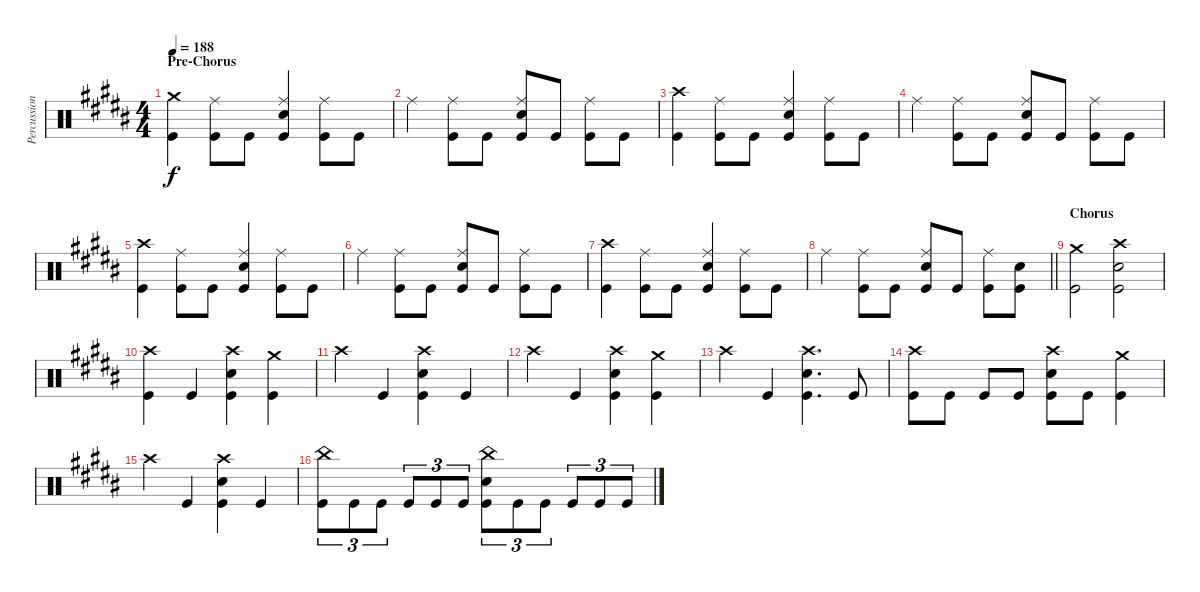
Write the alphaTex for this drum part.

\track ("Percussion" "Percussion") {instrument percussion}
\staff {score}
\articulation defaults
\ts (4 4)
\section ("" "Pre-Chorus")
\tempo 188
\clef neutral
\ks b
("Crash medium (hit)" "Kick (hit)").4{dy f} ("Ride (middle)" "Kick (hit)").8 "Kick (hit)".8 ("Ride (middle)" "Electric Snare (hit)" "Kick (hit)").4 ("Ride (middle)" "Kick (hit)").8 "Kick (hit)".8 |
"Ride (middle)".4 ("Ride (middle)" "Kick (hit)").8 "Kick (hit)".8 ("Ride (middle)" "Electric Snare (hit)" "Kick (hit)").8 "Kick (hit)".8 ("Ride (middle)" "Kick (hit)").8 "Kick (hit)".8 |
("Crash high (hit)" "Kick (hit)").4 ("Ride (middle)" "Kick (hit)").8 "Kick (hit)".8 ("Ride (middle)" "Electric Snare (hit)" "Kick (hit)").4 ("Ride (middle)" "Kick (hit)").8 "Kick (hit)".8 |
"Ride (middle)".4 ("Ride (middle)" "Kick (hit)").8 "Kick (hit)".8 ("Ride (middle)" "Electric Snare (hit)" "Kick (hit)").8 "Kick (hit)".8 ("Ride (middle)" "Kick (hit)").8 "Kick (hit)".8 |
("Crash high (hit)" "Kick (hit)").4 ("Ride (middle)" "Kick (hit)").8 "Kick (hit)".8 ("Ride (middle)" "Electric Snare (hit)" "Kick (hit)").4 ("Ride (middle)" "Kick (hit)").8 "Kick (hit)".8 |
"Ride (middle)".4 ("Ride (middle)" "Kick (hit)").8 "Kick (hit)".8 ("Ride (middle)" "Electric Snare (hit)" "Kick (hit)").8 "Kick (hit)".8 ("Ride (middle)" "Kick (hit)").8 "Kick (hit)".8 |
("Crash high (hit)" "Kick (hit)").4 ("Ride (middle)" "Kick (hit)").8 "Kick (hit)".8 ("Ride (middle)" "Electric Snare (hit)" "Kick (hit)").4 ("Ride (middle)" "Kick (hit)").8 "Kick (hit)".8 |
\barLineRight lightlight "Ride (middle)".4
("Ride (middle)" "Kick (hit)").8 "Kick (hit)".8 ("Ride (middle)" "Electric Snare (hit)" "Kick (hit)").8 "Kick (hit)".8 ("Ride (middle)" "Kick (hit)").8 ("Electric Snare (hit)" "Kick (hit)").8 |
\section ("" "Chorus")
("Crash medium (hit)" "Kick (hit)").2 ("Crash high (hit)" "Electric Snare (hit)" "Kick (hit)").2 |
("Crash high (hit)" "Kick (hit)").4 "Kick (hit)".4 ("Crash high (hit)" "Electric Snare (hit)" "Kick (hit)").4 ("Crash medium (hit)" "Kick (hit)").4 |
"Crash high (hit)".4 "Kick (hit)".4 ("Crash high (hit)" "Electric Snare (hit)" "Kick (hit)").4 "Kick (hit)".4 |
"Crash high (hit)".4 "Kick (hit)".4 ("Crash high (hit)" "Electric Snare (hit)" "Kick (hit)").4 ("Crash medium (hit)" "Kick (hit)").4 |
"Crash high (hit)".4 "Kick (hit)".4 ("Crash high (hit)" "Electric Snare (hit)" "Kick (hit)").4{d} "Kick (hit)".8 |
("Crash high (hit)" "Kick (hit)").8 "Kick (hit)".8 "Kick (hit)".8 "Kick (hit)".8 ("Crash high (hit)" "Electric Snare (hit)" "Kick (hit)").8 "Kick (hit)".8 ("Crash medium (hit)" "Kick (hit)").4 |
"Crash high (hit)".4 "Kick (hit)".4 ("Crash high (hit)" "Electric Snare (hit)" "Kick (hit)").4 "Kick (hit)".4 |
("China (hit)" "Kick (hit)").8{tu (3 2)} "Kick (hit)".8{tu (3 2)} "Kick (hit)".8{tu (3 2)} "Kick (hit)".8{tu (3 2)} "Kick (hit)".8{tu (3 2)} "Kick (hit)".8{tu (3 2)} ("China (hit)" "Electric Snare (hit)" "Kick (hit)").8{tu (3 2)} "Kick (hit)".8{tu (3 2)} "Kick (hit)".8{tu (3 2)} "Kick (hit)".8{tu (3 2)} "Kick (hit)".8{tu (3 2)} "Kick (hit)".8{tu (3 2)}
